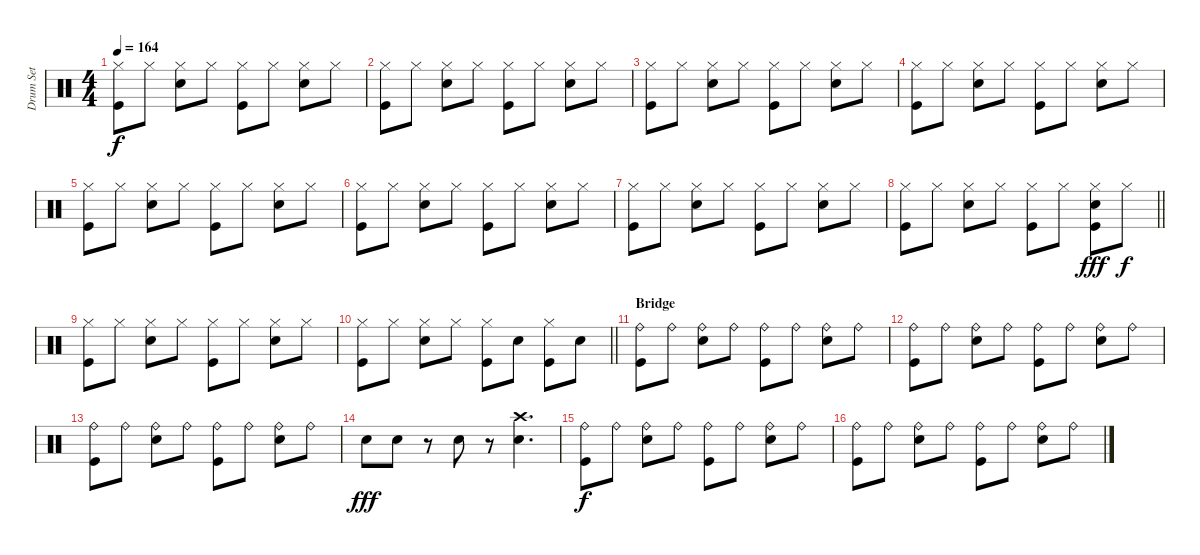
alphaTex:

\track ("Drum Set" "Drum Set") {instrument percussion}
\staff {score}
\articulation defaults
\ts (4 4)
\tempo 164
\clef neutral
\ks c
("Kick (hit)" "Hi-Hat (closed)").8{dy f} "Hi-Hat (closed)".8 ("Electric Snare (hit)" "Hi-Hat (closed)").8 "Hi-Hat (closed)".8 ("Kick (hit)" "Hi-Hat (closed)").8 "Hi-Hat (closed)".8 ("Electric Snare (hit)" "Hi-Hat (closed)").8 "Hi-Hat (closed)".8 |
("Kick (hit)" "Hi-Hat (closed)").8 "Hi-Hat (closed)".8 ("Electric Snare (hit)" "Hi-Hat (closed)").8 "Hi-Hat (closed)".8 ("Kick (hit)" "Hi-Hat (closed)").8 "Hi-Hat (closed)".8 ("Electric Snare (hit)" "Hi-Hat (closed)").8 "Hi-Hat (closed)".8 |
("Kick (hit)" "Hi-Hat (closed)").8 "Hi-Hat (closed)".8 ("Electric Snare (hit)" "Hi-Hat (closed)").8 "Hi-Hat (closed)".8 ("Kick (hit)" "Hi-Hat (closed)").8 "Hi-Hat (closed)".8 ("Electric Snare (hit)" "Hi-Hat (closed)").8 "Hi-Hat (closed)".8 |
("Kick (hit)" "Hi-Hat (closed)").8 "Hi-Hat (closed)".8 ("Electric Snare (hit)" "Hi-Hat (closed)").8 "Hi-Hat (closed)".8 ("Kick (hit)" "Hi-Hat (closed)").8 "Hi-Hat (closed)".8 ("Electric Snare (hit)" "Hi-Hat (closed)").8 "Hi-Hat (closed)".8 |
("Kick (hit)" "Hi-Hat (closed)").8 "Hi-Hat (closed)".8 ("Electric Snare (hit)" "Hi-Hat (closed)").8 "Hi-Hat (closed)".8 ("Kick (hit)" "Hi-Hat (closed)").8 "Hi-Hat (closed)".8 ("Electric Snare (hit)" "Hi-Hat (closed)").8 "Hi-Hat (closed)".8 |
("Kick (hit)" "Hi-Hat (closed)").8 "Hi-Hat (closed)".8 ("Electric Snare (hit)" "Hi-Hat (closed)").8 "Hi-Hat (closed)".8 ("Kick (hit)" "Hi-Hat (closed)").8 "Hi-Hat (closed)".8 ("Electric Snare (hit)" "Hi-Hat (closed)").8 "Hi-Hat (closed)".8 |
("Kick (hit)" "Hi-Hat (closed)").8 "Hi-Hat (closed)".8 ("Electric Snare (hit)" "Hi-Hat (closed)").8 "Hi-Hat (closed)".8 ("Kick (hit)" "Hi-Hat (closed)").8 "Hi-Hat (closed)".8 ("Electric Snare (hit)" "Hi-Hat (closed)").8 "Hi-Hat (closed)".8 |
\barLineRight lightlight
("Kick (hit)" "Hi-Hat (closed)").8 "Hi-Hat (closed)".8 ("Electric Snare (hit)" "Hi-Hat (closed)").8 "Hi-Hat (closed)".8 ("Kick (hit)" "Hi-Hat (closed)").8 "Hi-Hat (closed)".8 ("Hi-Hat (closed)" "Kick (hit)" "Electric Snare (hit)").8{dy fff} "Hi-Hat (closed)".8{dy f} |
("Kick (hit)" "Hi-Hat (closed)").8 "Hi-Hat (closed)".8 ("Electric Snare (hit)" "Hi-Hat (closed)").8 "Hi-Hat (closed)".8 ("Kick (hit)" "Hi-Hat (closed)").8 "Hi-Hat (closed)".8 ("Electric Snare (hit)" "Hi-Hat (closed)").8 "Hi-Hat (closed)".8 |
\barLineRight lightlight
("Kick (hit)" "Hi-Hat (closed)").8 "Hi-Hat (closed)".8 ("Electric Snare (hit)" "Hi-Hat (closed)").8 "Hi-Hat (closed)".8 ("Kick (hit)" "Hi-Hat (closed)").8 "Electric Snare (hit)".8 ("Kick (hit)" "Hi-Hat (closed)").8 "Electric Snare (hit)".8 |
\section ("" "Bridge")
("Kick (hit)" "Ride (bell)").8 "Ride (bell)".8 ("Electric Snare (hit)" "Ride (bell)").8 "Ride (bell)".8 ("Kick (hit)" "Ride (bell)").8 "Ride (bell)".8 ("Electric Snare (hit)" "Ride (bell)").8 "Ride (bell)".8 |
("Kick (hit)" "Ride (bell)").8 "Ride (bell)".8 ("Electric Snare (hit)" "Ride (bell)").8 "Ride (bell)".8 ("Kick (hit)" "Ride (bell)").8 "Ride (bell)".8 ("Electric Snare (hit)" "Ride (bell)").8 "Ride (bell)".8 |
("Kick (hit)" "Ride (bell)").8 "Ride (bell)".8 ("Electric Snare (hit)" "Ride (bell)").8 "Ride (bell)".8 ("Kick (hit)" "Ride (bell)").8 "Ride (bell)".8 ("Electric Snare (hit)" "Ride (bell)").8 "Ride (bell)".8 |
"Electric Snare (hit)".8{dy fff} "Electric Snare (hit)".8 r.8 "Electric Snare (hit)".8 r.8 ("Crash high (hit)" "Electric Snare (hit)").4{d} |
("Kick (hit)" "Ride (bell)").8{dy f} "Ride (bell)".8 ("Electric Snare (hit)" "Ride (bell)").8 "Ride (bell)".8 ("Kick (hit)" "Ride (bell)").8 "Ride (bell)".8 ("Electric Snare (hit)" "Ride (bell)").8 "Ride (bell)".8 |
("Kick (hit)" "Ride (bell)").8 "Ride (bell)".8 ("Electric Snare (hit)" "Ride (bell)").8 "Ride (bell)".8 ("Kick (hit)" "Ride (bell)").8 "Ride (bell)".8 ("Electric Snare (hit)" "Ride (bell)").8 "Ride (bell)".8
